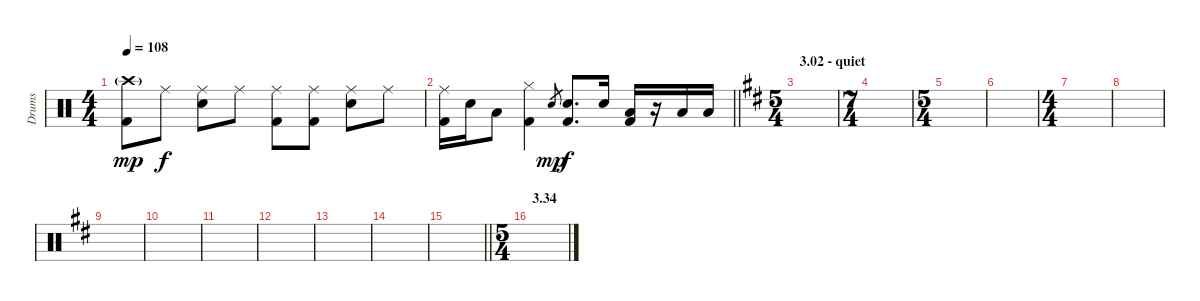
\track ("Drums" "Drums") {instrument percussion}
\staff {score}
\articulation defaults
\ts (4 4)
\tempo 108
\clef neutral
\ks c
("Crash high (hit)"{g} "Kick (hit) 2").8{dy mp} "Ride (middle)".8{dy f} ("Ride (middle)" "Electric Snare (hit)").8 "Ride (middle)".8 ("Ride (middle)" "Kick (hit) 2").8 ("Ride (middle)" "Kick (hit) 2").8 ("Ride (middle)" "Electric Snare (hit)").8 "Ride (middle)".8 |
\barLineRight lightlight
("Ride (middle)" "Kick (hit) 2").16 "Electric Snare (hit)".16 "Low Tom (hit)".8 ("Hi-Hat (closed)" "Kick (hit) 2").4 "Electric Snare (hit)".8{gr dy mp} ("Electric Snare (hit)" "Kick (hit) 2").8{d dy f} "Electric Snare (hit)".16 ("Low Tom (hit)" "Kick (hit) 2").16 r.16 "Low Tom (hit)".16 "Low Tom (hit)".16 |
\ts (5 4)
\section ("" "3.02 - quiet")
\ks d
|
\ts (7 4)
|
\ts (5 4)
|
|
\ts (4 4)
|
|
|
|
|
|
|
|
\barLineRight lightlight
|
\ts (5 4)
\section ("" "3.34")
